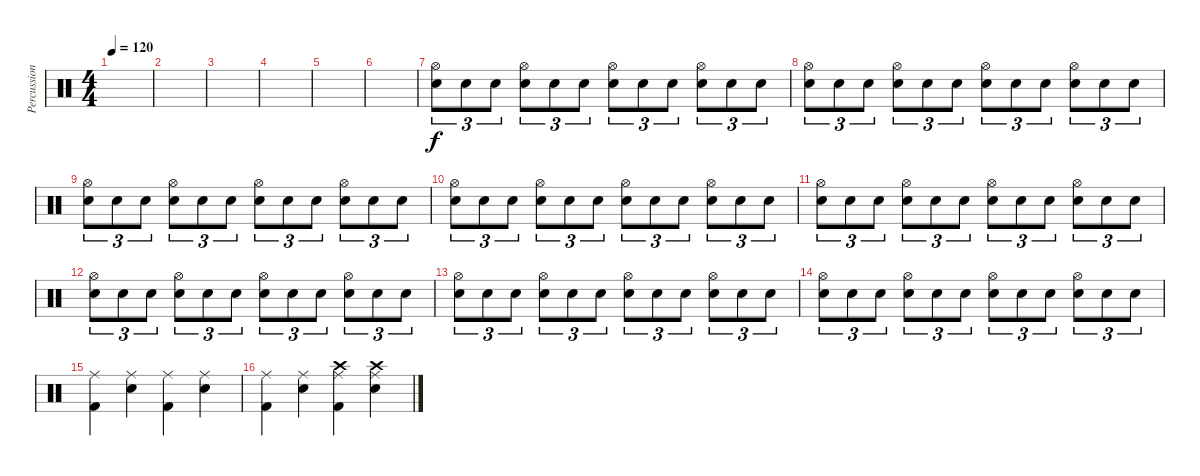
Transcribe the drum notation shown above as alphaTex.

\track ("Percussions" "Percussion") {instrument percussion}
\staff {score}
\articulation defaults
\ts (4 4)
\tempo 120
\clef neutral
\ks c
|
|
|
|
|
|
("Hi-Hat (open)" "Electric Snare (hit)").8{tu (3 2)} "Electric Snare (hit)".8{tu (3 2)} "Electric Snare (hit)".8{tu (3 2)} ("Hi-Hat (open)" "Electric Snare (hit)").8{tu (3 2)} "Electric Snare (hit)".8{tu (3 2)} "Electric Snare (hit)".8{tu (3 2)} ("Hi-Hat (open)" "Electric Snare (hit)").8{tu (3 2)} "Electric Snare (hit)".8{tu (3 2)} "Electric Snare (hit)".8{tu (3 2)} ("Hi-Hat (open)" "Electric Snare (hit)").8{tu (3 2)} "Electric Snare (hit)".8{tu (3 2)} "Electric Snare (hit)".8{tu (3 2)} |
("Hi-Hat (open)" "Electric Snare (hit)").8{tu (3 2)} "Electric Snare (hit)".8{tu (3 2)} "Electric Snare (hit)".8{tu (3 2)} ("Hi-Hat (open)" "Electric Snare (hit)").8{tu (3 2)} "Electric Snare (hit)".8{tu (3 2)} "Electric Snare (hit)".8{tu (3 2)} ("Hi-Hat (open)" "Electric Snare (hit)").8{tu (3 2)} "Electric Snare (hit)".8{tu (3 2)} "Electric Snare (hit)".8{tu (3 2)} ("Hi-Hat (open)" "Electric Snare (hit)").8{tu (3 2)} "Electric Snare (hit)".8{tu (3 2)} "Electric Snare (hit)".8{tu (3 2)} |
("Hi-Hat (open)" "Electric Snare (hit)").8{tu (3 2)} "Electric Snare (hit)".8{tu (3 2)} "Electric Snare (hit)".8{tu (3 2)} ("Hi-Hat (open)" "Electric Snare (hit)").8{tu (3 2)} "Electric Snare (hit)".8{tu (3 2)} "Electric Snare (hit)".8{tu (3 2)} ("Hi-Hat (open)" "Electric Snare (hit)").8{tu (3 2)} "Electric Snare (hit)".8{tu (3 2)} "Electric Snare (hit)".8{tu (3 2)} ("Hi-Hat (open)" "Electric Snare (hit)").8{tu (3 2)} "Electric Snare (hit)".8{tu (3 2)} "Electric Snare (hit)".8{tu (3 2)} |
("Hi-Hat (open)" "Electric Snare (hit)").8{tu (3 2)} "Electric Snare (hit)".8{tu (3 2)} "Electric Snare (hit)".8{tu (3 2)} ("Hi-Hat (open)" "Electric Snare (hit)").8{tu (3 2)} "Electric Snare (hit)".8{tu (3 2)} "Electric Snare (hit)".8{tu (3 2)} ("Hi-Hat (open)" "Electric Snare (hit)").8{tu (3 2)} "Electric Snare (hit)".8{tu (3 2)} "Electric Snare (hit)".8{tu (3 2)} ("Hi-Hat (open)" "Electric Snare (hit)").8{tu (3 2)} "Electric Snare (hit)".8{tu (3 2)} "Electric Snare (hit)".8{tu (3 2)} |
("Hi-Hat (open)" "Electric Snare (hit)").8{tu (3 2)} "Electric Snare (hit)".8{tu (3 2)} "Electric Snare (hit)".8{tu (3 2)} ("Hi-Hat (open)" "Electric Snare (hit)").8{tu (3 2)} "Electric Snare (hit)".8{tu (3 2)} "Electric Snare (hit)".8{tu (3 2)} ("Hi-Hat (open)" "Electric Snare (hit)").8{tu (3 2)} "Electric Snare (hit)".8{tu (3 2)} "Electric Snare (hit)".8{tu (3 2)} ("Hi-Hat (open)" "Electric Snare (hit)").8{tu (3 2)} "Electric Snare (hit)".8{tu (3 2)} "Electric Snare (hit)".8{tu (3 2)} |
("Hi-Hat (open)" "Electric Snare (hit)").8{tu (3 2)} "Electric Snare (hit)".8{tu (3 2)} "Electric Snare (hit)".8{tu (3 2)} ("Hi-Hat (open)" "Electric Snare (hit)").8{tu (3 2)} "Electric Snare (hit)".8{tu (3 2)} "Electric Snare (hit)".8{tu (3 2)} ("Hi-Hat (open)" "Electric Snare (hit)").8{tu (3 2)} "Electric Snare (hit)".8{tu (3 2)} "Electric Snare (hit)".8{tu (3 2)} ("Hi-Hat (open)" "Electric Snare (hit)").8{tu (3 2)} "Electric Snare (hit)".8{tu (3 2)} "Electric Snare (hit)".8{tu (3 2)} |
("Hi-Hat (open)" "Electric Snare (hit)").8{tu (3 2)} "Electric Snare (hit)".8{tu (3 2)} "Electric Snare (hit)".8{tu (3 2)} ("Hi-Hat (open)" "Electric Snare (hit)").8{tu (3 2)} "Electric Snare (hit)".8{tu (3 2)} "Electric Snare (hit)".8{tu (3 2)} ("Hi-Hat (open)" "Electric Snare (hit)").8{tu (3 2)} "Electric Snare (hit)".8{tu (3 2)} "Electric Snare (hit)".8{tu (3 2)} ("Hi-Hat (open)" "Electric Snare (hit)").8{tu (3 2)} "Electric Snare (hit)".8{tu (3 2)} "Electric Snare (hit)".8{tu (3 2)} |
("Hi-Hat (open)" "Electric Snare (hit)").8{tu (3 2)} "Electric Snare (hit)".8{tu (3 2)} "Electric Snare (hit)".8{tu (3 2)} ("Hi-Hat (open)" "Electric Snare (hit)").8{tu (3 2)} "Electric Snare (hit)".8{tu (3 2)} "Electric Snare (hit)".8{tu (3 2)} ("Hi-Hat (open)" "Electric Snare (hit)").8{tu (3 2)} "Electric Snare (hit)".8{tu (3 2)} "Electric Snare (hit)".8{tu (3 2)} ("Hi-Hat (open)" "Electric Snare (hit)").8{tu (3 2)} "Electric Snare (hit)".8{tu (3 2)} "Electric Snare (hit)".8{tu (3 2)} |
("Ride (middle)" "Kick (hit) 2").4 ("Ride (middle)" "Electric Snare (hit)").4 ("Ride (middle)" "Kick (hit) 2").4 ("Ride (middle)" "Electric Snare (hit)").4 |
("Ride (middle)" "Kick (hit) 2").4 ("Ride (middle)" "Electric Snare (hit)").4 ("Ride (middle)" "Kick (hit) 2" "Crash high (hit)").4 ("Ride (middle)" "Electric Snare (hit)" "Crash high (hit)").4
